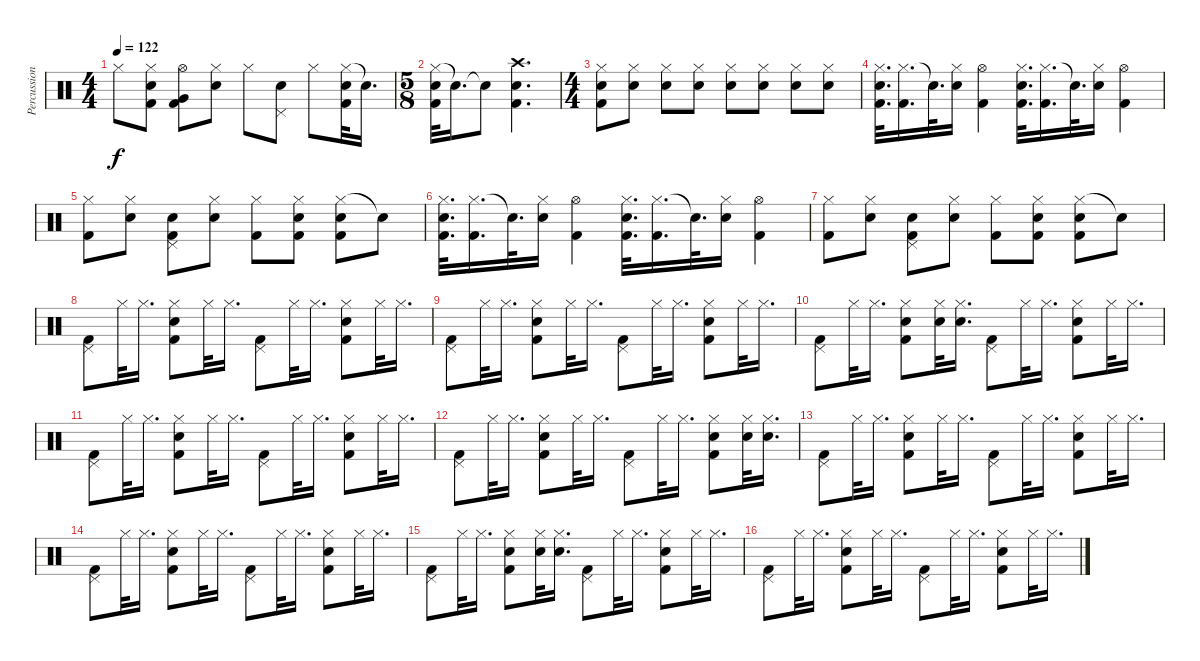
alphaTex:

\track ("Percussion" "Percussion") {instrument percussion}
\staff {score}
\articulation defaults
\ts (4 4)
\tempo 122
\clef neutral
\ks c "Hi-Hat (closed)".8{dy f}
("Hi-Hat (closed)" "Snare (hit) 2" "Kick (hit) 2").8 ("Hi-Hat (open)" "Very Low Tom (hit)" "Kick (hit) 2").8 ("Hi-Hat (closed)" "Snare (hit) 2").8 "Hi-Hat (closed)".8 ("Pedal Hi-Hat (hit)" "Snare (hit) 2").8 "Hi-Hat (closed)".8 ("Hi-Hat (closed)" "Snare (hit) 2" "Kick (hit) 2").32 "Electric Snare (hit)"{t}.16{d} |
\ts (5 8)
("Hi-Hat (closed)" "Snare (hit) 2" "Kick (hit) 2").32 "Electric Snare (hit)"{t}.16{d} "Electric Snare (hit)"{t}.8 ("Crash high (hit)" "Snare (hit) 2" "Kick (hit) 2").4{d} |
\ts (4 4)
("Hi-Hat (closed)" "Snare (hit) 2" "Kick (hit) 2").8 ("Hi-Hat (closed)" "Snare (hit) 2").8 ("Hi-Hat (closed)" "Snare (hit) 2").8 ("Hi-Hat (closed)" "Snare (hit) 2").8 ("Hi-Hat (closed)" "Snare (hit) 2").8 ("Hi-Hat (closed)" "Snare (hit) 2").8 ("Hi-Hat (closed)" "Snare (hit) 2").8 ("Hi-Hat (closed)" "Snare (hit) 2").8 |
("Hi-Hat (closed)" "Snare (hit) 2" "Kick (hit) 2").32{d} ("Hi-Hat (closed)" "Kick (hit) 2").16{d} "Snare (hit)"{t}.32{d} ("Hi-Hat (closed)" "Snare (hit) 2").16 ("Hi-Hat (open)" "Kick (hit) 2").4 ("Hi-Hat (closed)" "Snare (hit) 2" "Kick (hit) 2").32{d} ("Hi-Hat (closed)" "Kick (hit) 2").16{d} "Snare (hit)"{t}.32{d} ("Hi-Hat (closed)" "Snare (hit) 2").16 ("Hi-Hat (open)" "Kick (hit) 2").4 |
("Hi-Hat (closed)" "Kick (hit) 2").8 ("Hi-Hat (closed)" "Snare (hit) 2").8 ("Pedal Hi-Hat (hit)" "Snare (hit) 2" "Kick (hit) 2").8 ("Hi-Hat (closed)" "Snare (hit) 2").8 ("Hi-Hat (closed)" "Kick (hit) 2").8 ("Hi-Hat (closed)" "Snare (hit) 2" "Kick (hit) 2").8 ("Hi-Hat (closed)" "Snare (hit) 2" "Kick (hit) 2").8 "Snare (hit)"{t}.8 |
("Hi-Hat (closed)" "Snare (hit) 2" "Kick (hit) 2").32{d} ("Hi-Hat (closed)" "Kick (hit) 2").16{d} "Snare (hit)"{t}.32{d} ("Hi-Hat (closed)" "Snare (hit) 2").16 ("Hi-Hat (open)" "Kick (hit) 2").4 ("Hi-Hat (closed)" "Snare (hit) 2" "Kick (hit) 2").32{d} ("Hi-Hat (closed)" "Kick (hit) 2").16{d} "Snare (hit)"{t}.32{d} ("Hi-Hat (closed)" "Snare (hit) 2").16 ("Hi-Hat (open)" "Kick (hit) 2").4 |
("Hi-Hat (closed)" "Kick (hit) 2").8 ("Hi-Hat (closed)" "Snare (hit) 2").8 ("Pedal Hi-Hat (hit)" "Snare (hit) 2" "Kick (hit) 2").8 ("Hi-Hat (closed)" "Snare (hit) 2").8 ("Hi-Hat (closed)" "Kick (hit) 2").8 ("Hi-Hat (closed)" "Snare (hit) 2" "Kick (hit) 2").8 ("Hi-Hat (closed)" "Snare (hit) 2" "Kick (hit) 2").8 "Snare (hit)"{t}.8 |
("Pedal Hi-Hat (hit)" "Kick (hit) 2").8 "Hi-Hat (closed)".32 "Hi-Hat (closed)".16{d} ("Hi-Hat (closed)" "Snare (hit) 2" "Kick (hit) 2").8 "Hi-Hat (closed)".32 "Hi-Hat (closed)".16{d} ("Pedal Hi-Hat (hit)" "Kick (hit) 2").8 "Hi-Hat (closed)".32 "Hi-Hat (closed)".16{d} ("Hi-Hat (closed)" "Snare (hit) 2" "Kick (hit) 2").8 "Hi-Hat (closed)".32 "Hi-Hat (closed)".16{d} |
("Pedal Hi-Hat (hit)" "Kick (hit) 2").8 "Hi-Hat (closed)".32 "Hi-Hat (closed)".16{d} ("Hi-Hat (closed)" "Snare (hit) 2" "Kick (hit) 2").8 "Hi-Hat (closed)".32 "Hi-Hat (closed)".16{d} ("Pedal Hi-Hat (hit)" "Kick (hit) 2").8 "Hi-Hat (closed)".32 "Hi-Hat (closed)".16{d} ("Hi-Hat (closed)" "Snare (hit) 2" "Kick (hit) 2").8 "Hi-Hat (closed)".32 "Hi-Hat (closed)".16{d} |
("Pedal Hi-Hat (hit)" "Kick (hit) 2").8 "Hi-Hat (closed)".32 "Hi-Hat (closed)".16{d} ("Hi-Hat (closed)" "Snare (hit) 2" "Kick (hit) 2").8 ("Hi-Hat (closed)" "Snare (hit) 2").32 ("Hi-Hat (closed)" "Snare (hit) 2").16{d} ("Pedal Hi-Hat (hit)" "Kick (hit) 2").8 "Hi-Hat (closed)".32 "Hi-Hat (closed)".16{d} ("Hi-Hat (closed)" "Snare (hit) 2" "Kick (hit) 2").8 "Hi-Hat (closed)".32 "Hi-Hat (closed)".16{d} |
("Pedal Hi-Hat (hit)" "Kick (hit) 2").8 "Hi-Hat (closed)".32 "Hi-Hat (closed)".16{d} ("Hi-Hat (closed)" "Snare (hit) 2" "Kick (hit) 2").8 "Hi-Hat (closed)".32 "Hi-Hat (closed)".16{d} ("Pedal Hi-Hat (hit)" "Kick (hit) 2").8 "Hi-Hat (closed)".32 "Hi-Hat (closed)".16{d} ("Hi-Hat (closed)" "Snare (hit) 2" "Kick (hit) 2").8 "Hi-Hat (closed)".32 "Hi-Hat (closed)".16{d} |
("Pedal Hi-Hat (hit)" "Kick (hit) 2").8 "Hi-Hat (closed)".32 "Hi-Hat (closed)".16{d} ("Hi-Hat (closed)" "Snare (hit) 2" "Kick (hit) 2").8 "Hi-Hat (closed)".32 "Hi-Hat (closed)".16{d} ("Pedal Hi-Hat (hit)" "Kick (hit) 2").8 "Hi-Hat (closed)".32 "Hi-Hat (closed)".16{d} ("Hi-Hat (closed)" "Snare (hit) 2" "Kick (hit) 2").8 ("Hi-Hat (closed)" "Snare (hit) 2").32 ("Hi-Hat (closed)" "Snare (hit) 2").16{d} |
("Pedal Hi-Hat (hit)" "Kick (hit) 2").8 "Hi-Hat (closed)".32 "Hi-Hat (closed)".16{d} ("Hi-Hat (closed)" "Snare (hit) 2" "Kick (hit) 2").8 "Hi-Hat (closed)".32 "Hi-Hat (closed)".16{d} ("Pedal Hi-Hat (hit)" "Kick (hit) 2").8 "Hi-Hat (closed)".32 "Hi-Hat (closed)".16{d} ("Hi-Hat (closed)" "Snare (hit) 2" "Kick (hit) 2").8 "Hi-Hat (closed)".32 "Hi-Hat (closed)".16{d} |
("Pedal Hi-Hat (hit)" "Kick (hit) 2").8 "Hi-Hat (closed)".32 "Hi-Hat (closed)".16{d} ("Hi-Hat (closed)" "Snare (hit) 2" "Kick (hit) 2").8 "Hi-Hat (closed)".32 "Hi-Hat (closed)".16{d} ("Pedal Hi-Hat (hit)" "Kick (hit) 2").8 "Hi-Hat (closed)".32 "Hi-Hat (closed)".16{d} ("Hi-Hat (closed)" "Snare (hit) 2" "Kick (hit) 2").8 "Hi-Hat (closed)".32 "Hi-Hat (closed)".16{d} |
("Pedal Hi-Hat (hit)" "Kick (hit) 2").8 "Hi-Hat (closed)".32 "Hi-Hat (closed)".16{d} ("Hi-Hat (closed)" "Snare (hit) 2" "Kick (hit) 2").8 ("Hi-Hat (closed)" "Snare (hit) 2").32 ("Hi-Hat (closed)" "Snare (hit) 2").16{d} ("Pedal Hi-Hat (hit)" "Kick (hit) 2").8 "Hi-Hat (closed)".32 "Hi-Hat (closed)".16{d} ("Hi-Hat (closed)" "Snare (hit) 2" "Kick (hit) 2").8 "Hi-Hat (closed)".32 "Hi-Hat (closed)".16{d} |
("Pedal Hi-Hat (hit)" "Kick (hit) 2").8 "Hi-Hat (closed)".32 "Hi-Hat (closed)".16{d} ("Hi-Hat (closed)" "Snare (hit) 2" "Kick (hit) 2").8 "Hi-Hat (closed)".32 "Hi-Hat (closed)".16{d} ("Pedal Hi-Hat (hit)" "Kick (hit) 2").8 "Hi-Hat (closed)".32 "Hi-Hat (closed)".16{d} ("Hi-Hat (closed)" "Snare (hit) 2" "Kick (hit) 2").8 "Hi-Hat (closed)".32 "Hi-Hat (closed)".16{d}
